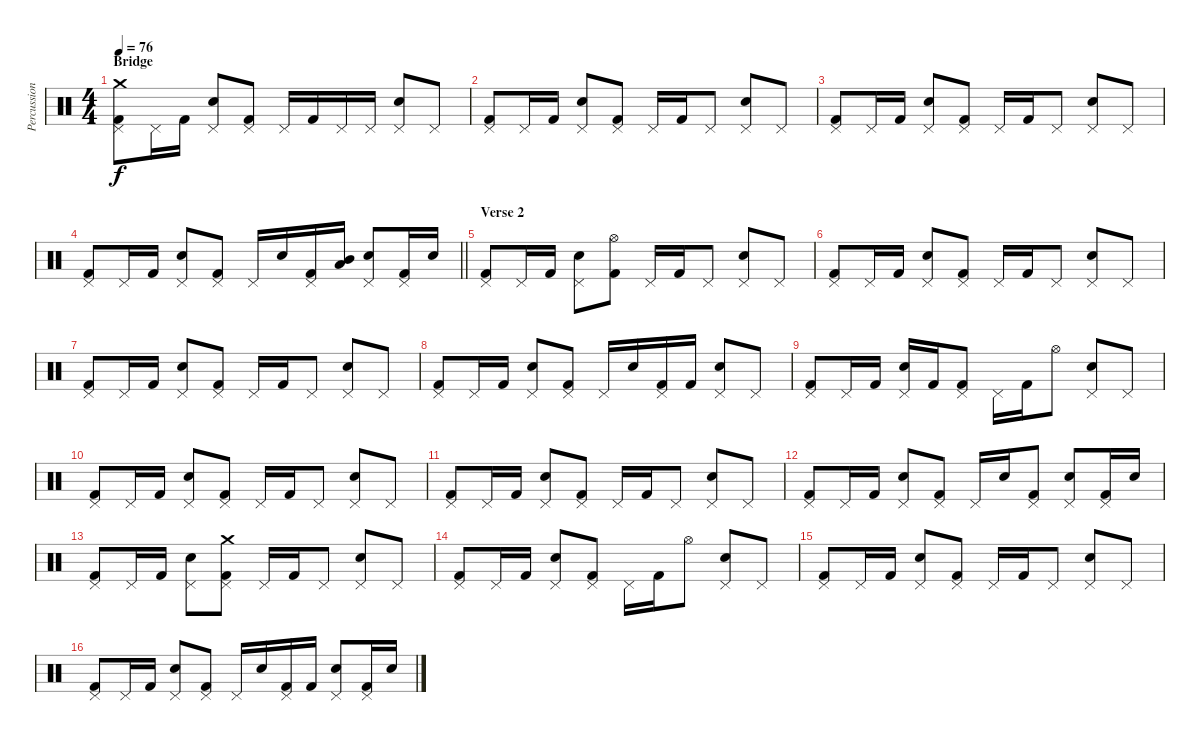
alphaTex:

\track ("Percussions" "Percussion") {instrument percussion}
\staff {score}
\articulation defaults
\ts (4 4)
\section ("" "Bridge")
\tempo 76
\clef neutral
\ks c
("Crash medium (hit)" "Pedal Hi-Hat (hit)" "Kick (hit) 2").8{dy f} "Pedal Hi-Hat (hit)".16 "Kick (hit) 2".16 ("Pedal Hi-Hat (hit)" "Snare (hit) 2").8 ("Pedal Hi-Hat (hit)" "Kick (hit) 2").8 "Pedal Hi-Hat (hit)".16 "Kick (hit) 2".16 "Pedal Hi-Hat (hit)".16 "Pedal Hi-Hat (hit)".16 ("Pedal Hi-Hat (hit)" "Snare (hit) 2").8 "Pedal Hi-Hat (hit)".8 |
("Pedal Hi-Hat (hit)" "Kick (hit) 2").8 "Pedal Hi-Hat (hit)".16 "Kick (hit) 2".16 ("Pedal Hi-Hat (hit)" "Snare (hit) 2").8 ("Pedal Hi-Hat (hit)" "Kick (hit) 2").8 "Pedal Hi-Hat (hit)".16 "Kick (hit) 2".16 "Pedal Hi-Hat (hit)".8 ("Pedal Hi-Hat (hit)" "Snare (hit) 2").8 "Pedal Hi-Hat (hit)".8 |
("Pedal Hi-Hat (hit)" "Kick (hit) 2").8 "Pedal Hi-Hat (hit)".16 "Kick (hit) 2".16 ("Pedal Hi-Hat (hit)" "Snare (hit) 2").8 ("Pedal Hi-Hat (hit)" "Kick (hit) 2").8 "Pedal Hi-Hat (hit)".16 "Kick (hit) 2".16 "Pedal Hi-Hat (hit)".8 ("Pedal Hi-Hat (hit)" "Snare (hit) 2").8 "Pedal Hi-Hat (hit)".8 |
\barLineRight lightlight
("Pedal Hi-Hat (hit)" "Kick (hit) 2").8 "Pedal Hi-Hat (hit)".16 "Kick (hit) 2".16 ("Pedal Hi-Hat (hit)" "Snare (hit) 2").8 ("Pedal Hi-Hat (hit)" "Kick (hit) 2").8 "Pedal Hi-Hat (hit)".16 "Snare (hit) 2".16 ("Pedal Hi-Hat (hit)" "Kick (hit) 2").16 ("Low Floor Tom (hit)" "Mid Tom (hit)").16 ("Pedal Hi-Hat (hit)" "Snare (hit) 2").8 ("Pedal Hi-Hat (hit)" "Kick (hit) 2").16 "Snare (hit) 2".16 |
\section ("" "Verse 2")
("Pedal Hi-Hat (hit)" "Kick (hit) 2").8 "Pedal Hi-Hat (hit)".16 "Kick (hit) 2".16 ("Pedal Hi-Hat (hit)" "Snare (hit) 2").8 ("Hi-Hat (open)" "Kick (hit) 2").8 "Pedal Hi-Hat (hit)".16 "Kick (hit) 2".16 "Pedal Hi-Hat (hit)".8 ("Pedal Hi-Hat (hit)" "Snare (hit) 2").8 "Pedal Hi-Hat (hit)".8 |
("Pedal Hi-Hat (hit)" "Kick (hit) 2").8 "Pedal Hi-Hat (hit)".16 "Kick (hit) 2".16 ("Pedal Hi-Hat (hit)" "Snare (hit) 2").8 ("Pedal Hi-Hat (hit)" "Kick (hit) 2").8 "Pedal Hi-Hat (hit)".16 "Kick (hit) 2".16 "Pedal Hi-Hat (hit)".8 ("Pedal Hi-Hat (hit)" "Snare (hit) 2").8 "Pedal Hi-Hat (hit)".8 |
("Pedal Hi-Hat (hit)" "Kick (hit) 2").8 "Pedal Hi-Hat (hit)".16 "Kick (hit) 2".16 ("Pedal Hi-Hat (hit)" "Snare (hit) 2").8 ("Pedal Hi-Hat (hit)" "Kick (hit) 2").8 "Pedal Hi-Hat (hit)".16 "Kick (hit) 2".16 "Pedal Hi-Hat (hit)".8 ("Pedal Hi-Hat (hit)" "Snare (hit) 2").8 "Pedal Hi-Hat (hit)".8 |
("Pedal Hi-Hat (hit)" "Kick (hit) 2").8 "Pedal Hi-Hat (hit)".16 "Kick (hit) 2".16 ("Pedal Hi-Hat (hit)" "Snare (hit) 2").8 ("Pedal Hi-Hat (hit)" "Kick (hit) 2").8 "Pedal Hi-Hat (hit)".16 "Snare (hit) 2".16 ("Pedal Hi-Hat (hit)" "Kick (hit) 2").16 "Kick (hit) 2".16 ("Pedal Hi-Hat (hit)" "Snare (hit) 2").8 "Pedal Hi-Hat (hit)".8 |
("Pedal Hi-Hat (hit)" "Kick (hit) 2").8 "Pedal Hi-Hat (hit)".16 "Kick (hit) 2".16 ("Pedal Hi-Hat (hit)" "Snare (hit) 2").16 "Kick (hit) 2".16 ("Pedal Hi-Hat (hit)" "Kick (hit) 2").8 "Pedal Hi-Hat (hit)".16 "Kick (hit) 2".16 "Hi-Hat (open)".8 ("Pedal Hi-Hat (hit)" "Snare (hit) 2").8 "Pedal Hi-Hat (hit)".8 |
("Pedal Hi-Hat (hit)" "Kick (hit) 2").8 "Pedal Hi-Hat (hit)".16 "Kick (hit) 2".16 ("Pedal Hi-Hat (hit)" "Snare (hit) 2").8 ("Pedal Hi-Hat (hit)" "Kick (hit) 2").8 "Pedal Hi-Hat (hit)".16 "Kick (hit) 2".16 "Pedal Hi-Hat (hit)".8 ("Pedal Hi-Hat (hit)" "Snare (hit) 2").8 "Pedal Hi-Hat (hit)".8 |
("Pedal Hi-Hat (hit)" "Kick (hit) 2").8 "Pedal Hi-Hat (hit)".16 "Kick (hit) 2".16 ("Pedal Hi-Hat (hit)" "Snare (hit) 2").8 ("Pedal Hi-Hat (hit)" "Kick (hit) 2").8 "Pedal Hi-Hat (hit)".16 "Kick (hit) 2".16 "Pedal Hi-Hat (hit)".8 ("Pedal Hi-Hat (hit)" "Snare (hit) 2").8 "Pedal Hi-Hat (hit)".8 |
("Pedal Hi-Hat (hit)" "Kick (hit) 2").8 "Pedal Hi-Hat (hit)".16 "Kick (hit) 2".16 ("Pedal Hi-Hat (hit)" "Snare (hit) 2").8 ("Pedal Hi-Hat (hit)" "Kick (hit) 2").8 "Pedal Hi-Hat (hit)".16 "Snare (hit) 2".16 ("Pedal Hi-Hat (hit)" "Kick (hit) 2").8 ("Pedal Hi-Hat (hit)" "Snare (hit) 2").8 ("Pedal Hi-Hat (hit)" "Kick (hit) 2").16 "Snare (hit) 2".16 |
("Pedal Hi-Hat (hit)" "Kick (hit) 2").8 "Pedal Hi-Hat (hit)".16 "Kick (hit) 2".16 ("Pedal Hi-Hat (hit)" "Snare (hit) 2").8 ("Crash medium (hit)" "Pedal Hi-Hat (hit)" "Kick (hit) 2").8 "Pedal Hi-Hat (hit)".16 "Kick (hit) 2".16 "Pedal Hi-Hat (hit)".8 ("Pedal Hi-Hat (hit)" "Snare (hit) 2").8 "Pedal Hi-Hat (hit)".8 |
("Pedal Hi-Hat (hit)" "Kick (hit) 2").8 "Pedal Hi-Hat (hit)".16 "Kick (hit) 2".16 ("Pedal Hi-Hat (hit)" "Snare (hit) 2").8 ("Pedal Hi-Hat (hit)" "Kick (hit) 2").8 "Pedal Hi-Hat (hit)".16 "Kick (hit) 2".16 "Hi-Hat (open)".8 ("Pedal Hi-Hat (hit)" "Snare (hit) 2").8 "Pedal Hi-Hat (hit)".8 |
("Pedal Hi-Hat (hit)" "Kick (hit) 2").8 "Pedal Hi-Hat (hit)".16 "Kick (hit) 2".16 ("Pedal Hi-Hat (hit)" "Snare (hit) 2").8 ("Pedal Hi-Hat (hit)" "Kick (hit) 2").8 "Pedal Hi-Hat (hit)".16 "Kick (hit) 2".16 "Pedal Hi-Hat (hit)".8 ("Pedal Hi-Hat (hit)" "Snare (hit) 2").8 "Pedal Hi-Hat (hit)".8 |
("Pedal Hi-Hat (hit)" "Kick (hit) 2").8 "Pedal Hi-Hat (hit)".16 "Kick (hit) 2".16 ("Pedal Hi-Hat (hit)" "Snare (hit) 2").8 ("Pedal Hi-Hat (hit)" "Kick (hit) 2").8 "Pedal Hi-Hat (hit)".16 "Snare (hit) 2".16 ("Pedal Hi-Hat (hit)" "Kick (hit) 2").16 "Kick (hit) 2".16 ("Pedal Hi-Hat (hit)" "Snare (hit) 2").8 ("Pedal Hi-Hat (hit)" "Kick (hit) 2").16 "Snare (hit) 2".16
